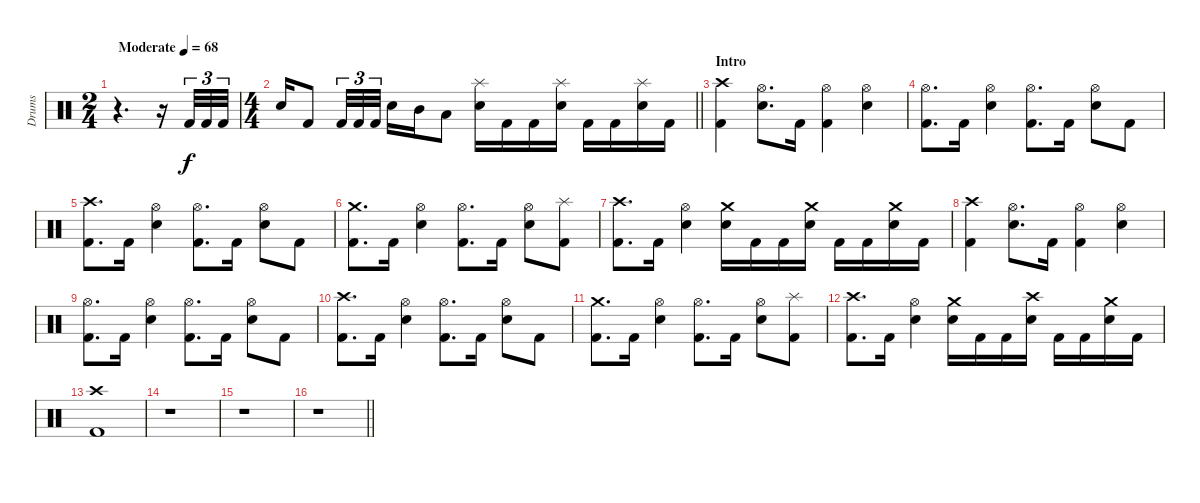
\track ("Drums" "Drums") {instrument percussion}
\staff {score}
\articulation defaults
\ts (2 4)
\tempo (68 "Moderate")
\clef neutral
\ks c
r.4{d dy f} r.16 "Kick (hit) 2".32{tu (3 2)} "Kick (hit) 2".32{tu (3 2)} "Kick (hit) 2".32{tu (3 2)} |
\ts (4 4)
\barLineRight lightlight "Snare (hit) 2".16 "Kick (hit) 2".8 "Kick (hit) 2".32{tu (3 2)} "Kick (hit) 2".32{tu (3 2)} "Kick (hit) 2".32{tu (3 2)} "Snare (hit) 2".16 "Mid Tom (hit)".16 "Low Tom (hit)".8
("Splash (hit)" "Snare (hit) 2").16 "Kick (hit) 2".16 "Kick (hit) 2".16 ("Splash (hit)" "Snare (hit) 2").16 "Kick (hit) 2".16 "Kick (hit) 2".16 ("Splash (hit)" "Snare (hit) 2").16 "Kick (hit) 2".16 |
\section ("" "Intro")
("Crash high (hit)" "Kick (hit) 2").4 ("Hi-Hat (open)" "Snare (hit) 2").8{d} "Kick (hit) 2".16 ("Hi-Hat (open)" "Kick (hit) 2").4 ("Hi-Hat (open)" "Snare (hit) 2").4 |
("Hi-Hat (open)" "Kick (hit) 2").8{d} "Kick (hit) 2".16 ("Hi-Hat (open)" "Snare (hit) 2").4 ("Hi-Hat (open)" "Kick (hit) 2").8{d} "Kick (hit) 2".16 ("Hi-Hat (open)" "Snare (hit) 2").8 "Kick (hit) 2".8 |
("Crash high (hit)" "Kick (hit) 2").8{d} "Kick (hit) 2".16 ("Hi-Hat (open)" "Snare (hit) 2").4 ("Hi-Hat (open)" "Kick (hit) 2").8{d} "Kick (hit) 2".16 ("Hi-Hat (open)" "Snare (hit) 2").8 "Kick (hit) 2".8 |
("Crash medium (hit)" "Kick (hit) 2").8{d} "Kick (hit) 2".16 ("Hi-Hat (open)" "Snare (hit) 2").4 ("Hi-Hat (open)" "Kick (hit) 2").8{d} "Kick (hit) 2".16 ("Hi-Hat (open)" "Snare (hit) 2").8 ("Splash (hit)" "Kick (hit) 2").8 |
("Crash high (hit)" "Kick (hit) 2").8{d} "Kick (hit) 2".16 ("Hi-Hat (open)" "Snare (hit) 2").4 ("Crash medium (hit)" "Snare (hit) 2").16 "Kick (hit) 2".16 "Kick (hit) 2".16 ("Crash medium (hit)" "Snare (hit) 2").16 "Kick (hit) 2".16 "Kick (hit) 2".16 ("Crash medium (hit)" "Snare (hit) 2").16 "Kick (hit) 2".16 |
("Crash high (hit)" "Kick (hit) 2").4 ("Hi-Hat (open)" "Snare (hit) 2").8{d} "Kick (hit) 2".16 ("Hi-Hat (open)" "Kick (hit) 2").4 ("Hi-Hat (open)" "Snare (hit) 2").4 |
("Hi-Hat (open)" "Kick (hit) 2").8{d} "Kick (hit) 2".16 ("Hi-Hat (open)" "Snare (hit) 2").4 ("Hi-Hat (open)" "Kick (hit) 2").8{d} "Kick (hit) 2".16 ("Hi-Hat (open)" "Snare (hit) 2").8 "Kick (hit) 2".8 |
("Crash high (hit)" "Kick (hit) 2").8{d} "Kick (hit) 2".16 ("Hi-Hat (open)" "Snare (hit) 2").4 ("Hi-Hat (open)" "Kick (hit) 2").8{d} "Kick (hit) 2".16 ("Hi-Hat (open)" "Snare (hit) 2").8 "Kick (hit) 2".8 |
("Crash medium (hit)" "Kick (hit) 2").8{d} "Kick (hit) 2".16 ("Hi-Hat (open)" "Snare (hit) 2").4 ("Hi-Hat (open)" "Kick (hit) 2").8{d} "Kick (hit) 2".16 ("Hi-Hat (open)" "Snare (hit) 2").8 ("Splash (hit)" "Kick (hit) 2").8 |
("Crash high (hit)" "Kick (hit) 2").8{d} "Kick (hit) 2".16 ("Hi-Hat (open)" "Snare (hit) 2").4 ("Crash medium (hit)" "Snare (hit) 2").16 "Kick (hit) 2".16 "Kick (hit) 2".16 ("Crash high (hit)" "Snare (hit) 2").16 "Kick (hit) 2".16 "Kick (hit) 2".16 ("Crash medium (hit)" "Snare (hit) 2").16 "Kick (hit) 2".16 |
("Crash high (hit)" "Kick (hit) 2").1 |
r.1 |
r.1 |
\barLineRight lightlight
r.1
